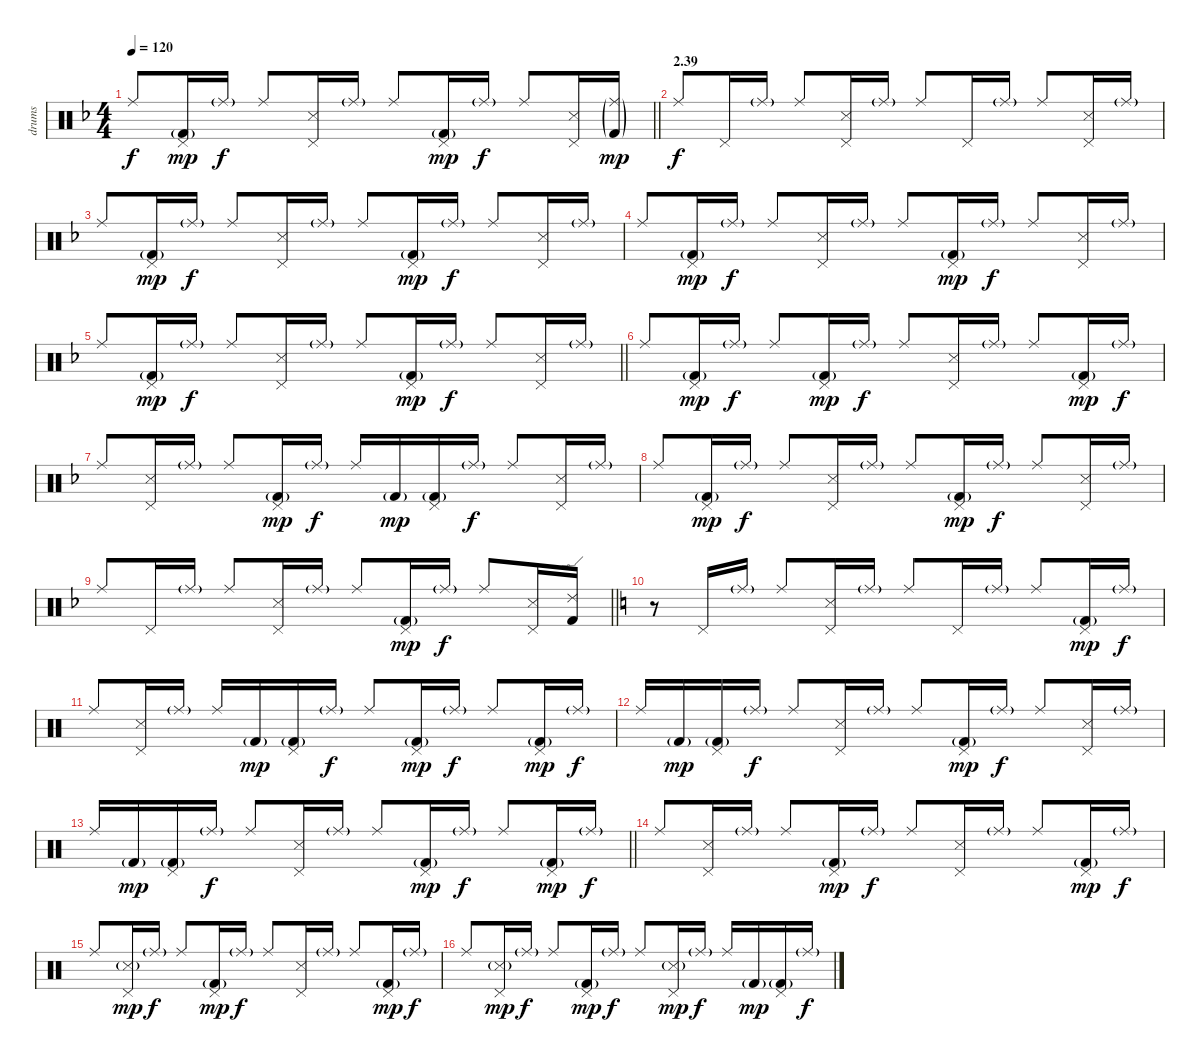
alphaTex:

\track ("drums" "drums") {instrument percussion}
\staff {score}
\articulation defaults
\ts (4 4)
\tempo 120
\clef neutral
\barLineRight lightlight
\ks f "Ride (middle)".8{dy f}
("Pedal Hi-Hat (hit)" "Kick (hit) 2"{g}).16{dy mp} "Ride (middle)"{g}.16{dy f} "Ride (middle)".8 ("Pedal Hi-Hat (hit)" "Snare (side stick) 3").16 "Ride (middle)"{g}.16 "Ride (middle)".8 ("Pedal Hi-Hat (hit)" "Kick (hit) 2"{g}).16{dy mp} "Ride (middle)"{g}.16{dy f} "Ride (middle)".8 ("Pedal Hi-Hat (hit)" "Snare (side stick) 3").16 ("Ride (middle)"{g} "Kick (hit) 2"{g}).16{dy mp} |
\section ("" "2.39")
"Ride (middle)".8{dy f} "Pedal Hi-Hat (hit)".16 "Ride (middle)"{g}.16 "Ride (middle)".8 ("Pedal Hi-Hat (hit)" "Snare (side stick) 3").16 "Ride (middle)"{g}.16 "Ride (middle)".8 "Pedal Hi-Hat (hit)".16 "Ride (middle)"{g}.16 "Ride (middle)".8 ("Pedal Hi-Hat (hit)" "Snare (side stick) 3").16 "Ride (middle)"{g}.16 |
"Ride (middle)".8 ("Pedal Hi-Hat (hit)" "Kick (hit) 2"{g}).16{dy mp} "Ride (middle)"{g}.16{dy f} "Ride (middle)".8 ("Pedal Hi-Hat (hit)" "Snare (side stick) 3").16 "Ride (middle)"{g}.16 "Ride (middle)".8 ("Pedal Hi-Hat (hit)" "Kick (hit) 2"{g}).16{dy mp} "Ride (middle)"{g}.16{dy f} "Ride (middle)".8 ("Pedal Hi-Hat (hit)" "Snare (side stick) 3").16 "Ride (middle)"{g}.16 |
"Ride (middle)".8 ("Pedal Hi-Hat (hit)" "Kick (hit) 2"{g}).16{dy mp} "Ride (middle)"{g}.16{dy f} "Ride (middle)".8 ("Pedal Hi-Hat (hit)" "Snare (side stick) 3").16 "Ride (middle)"{g}.16 "Ride (middle)".8 ("Pedal Hi-Hat (hit)" "Kick (hit) 2"{g}).16{dy mp} "Ride (middle)"{g}.16{dy f} "Ride (middle)".8 ("Pedal Hi-Hat (hit)" "Snare (side stick) 3").16 "Ride (middle)"{g}.16 |
\barLineRight lightlight "Ride (middle)".8
("Pedal Hi-Hat (hit)" "Kick (hit) 2"{g}).16{dy mp} "Ride (middle)"{g}.16{dy f} "Ride (middle)".8 ("Pedal Hi-Hat (hit)" "Snare (side stick) 3").16 "Ride (middle)"{g}.16 "Ride (middle)".8 ("Pedal Hi-Hat (hit)" "Kick (hit) 2"{g}).16{dy mp} "Ride (middle)"{g}.16{dy f} "Ride (middle)".8 ("Pedal Hi-Hat (hit)" "Snare (side stick) 3").16 "Ride (middle)"{g}.16 |
"Ride (middle)".8 ("Pedal Hi-Hat (hit)" "Kick (hit) 2"{g}).16{dy mp} "Ride (middle)"{g}.16{dy f} "Ride (middle)".8 ("Pedal Hi-Hat (hit)" "Kick (hit) 2"{g}).16{dy mp} "Ride (middle)"{g}.16{dy f} "Ride (middle)".8 ("Pedal Hi-Hat (hit)" "Snare (side stick) 3").16 "Ride (middle)"{g}.16 "Ride (middle)".8 ("Pedal Hi-Hat (hit)" "Kick (hit) 2"{g}).16{dy mp} "Ride (middle)"{g}.16{dy f} |
"Ride (middle)".8 ("Pedal Hi-Hat (hit)" "Snare (side stick) 3").16 "Ride (middle)"{g}.16 "Ride (middle)".8 ("Pedal Hi-Hat (hit)" "Kick (hit) 2"{g}).16{dy mp} "Ride (middle)"{g}.16{dy f} "Ride (middle)".16 "Kick (hit) 2"{g}.16{dy mp} ("Pedal Hi-Hat (hit)" "Kick (hit) 2"{g}).16 "Ride (middle)"{g}.16{dy f} "Ride (middle)".8 ("Pedal Hi-Hat (hit)" "Snare (side stick) 3").16 "Ride (middle)"{g}.16 |
"Ride (middle)".8 ("Pedal Hi-Hat (hit)" "Kick (hit) 2"{g}).16{dy mp} "Ride (middle)"{g}.16{dy f} "Ride (middle)".8 ("Pedal Hi-Hat (hit)" "Snare (side stick) 3").16 "Ride (middle)"{g}.16 "Ride (middle)".8 ("Pedal Hi-Hat (hit)" "Kick (hit) 2"{g}).16{dy mp} "Ride (middle)"{g}.16{dy f} "Ride (middle)".8 ("Pedal Hi-Hat (hit)" "Snare (side stick) 3").16 "Ride (middle)"{g}.16 |
\barLineRight lightlight "Ride (middle)".8 "Pedal Hi-Hat (hit)".16 "Ride (middle)"{g}.16 "Ride (middle)".8
("Pedal Hi-Hat (hit)" "Snare (side stick) 3").16 "Ride (middle)"{g}.16 "Ride (middle)".8 ("Pedal Hi-Hat (hit)" "Kick (hit) 2"{g}).16{dy mp} "Ride (middle)"{g}.16{dy f} "Ride (middle)".8 ("Pedal Hi-Hat (hit)" "Snare (side stick) 3").16 ("Ride (edge) 2" "Kick (hit) 2").16 |
\ks c
r.8 "Pedal Hi-Hat (hit)".16 "Ride (middle)"{g}.16 "Ride (middle)".8 ("Pedal Hi-Hat (hit)" "Snare (side stick) 3").16 "Ride (middle)"{g}.16 "Ride (middle)".8 "Pedal Hi-Hat (hit)".16 "Ride (middle)"{g}.16 "Ride (middle)".8 ("Pedal Hi-Hat (hit)" "Kick (hit) 2"{g}).16{dy mp} "Ride (middle)"{g}.16{dy f} |
"Ride (middle)".8 ("Pedal Hi-Hat (hit)" "Snare (side stick) 3").16 "Ride (middle)"{g}.16 "Ride (middle)".16 "Kick (hit) 2"{g}.16{dy mp} ("Pedal Hi-Hat (hit)" "Kick (hit) 2"{g}).16 "Ride (middle)"{g}.16{dy f} "Ride (middle)".8 ("Pedal Hi-Hat (hit)" "Kick (hit) 2"{g}).16{dy mp} "Ride (middle)"{g}.16{dy f} "Ride (middle)".8 ("Pedal Hi-Hat (hit)" "Kick (hit) 2"{g}).16{dy mp} "Ride (middle)"{g}.16{dy f} |
"Ride (middle)".16 "Kick (hit) 2"{g}.16{dy mp} ("Pedal Hi-Hat (hit)" "Kick (hit) 2"{g}).16 "Ride (middle)"{g}.16{dy f} "Ride (middle)".8 ("Pedal Hi-Hat (hit)" "Snare (side stick) 3").16 "Ride (middle)"{g}.16 "Ride (middle)".8 ("Pedal Hi-Hat (hit)" "Kick (hit) 2"{g}).16{dy mp} "Ride (middle)"{g}.16{dy f} "Ride (middle)".8 ("Pedal Hi-Hat (hit)" "Snare (side stick) 3").16 "Ride (middle)"{g}.16 |
\barLineRight lightlight "Ride (middle)".16 "Kick (hit) 2"{g}.16{dy mp}
("Pedal Hi-Hat (hit)" "Kick (hit) 2"{g}).16 "Ride (middle)"{g}.16{dy f} "Ride (middle)".8 ("Pedal Hi-Hat (hit)" "Snare (side stick) 3").16 "Ride (middle)"{g}.16 "Ride (middle)".8 ("Pedal Hi-Hat (hit)" "Kick (hit) 2"{g}).16{dy mp} "Ride (middle)"{g}.16{dy f} "Ride (middle)".8 ("Pedal Hi-Hat (hit)" "Kick (hit) 2"{g}).16{dy mp} "Ride (middle)"{g}.16{dy f} |
"Ride (middle)".8 ("Pedal Hi-Hat (hit)" "Snare (side stick) 3").16 "Ride (middle)"{g}.16 "Ride (middle)".8 ("Pedal Hi-Hat (hit)" "Kick (hit) 2"{g}).16{dy mp} "Ride (middle)"{g}.16{dy f} "Ride (middle)".8 ("Pedal Hi-Hat (hit)" "Snare (side stick) 3").16 "Ride (middle)"{g}.16 "Ride (middle)".8 ("Pedal Hi-Hat (hit)" "Kick (hit) 2"{g}).16{dy mp} "Ride (middle)"{g}.16{dy f} |
"Ride (middle)".8 ("Pedal Hi-Hat (hit)" "Snare (side stick) 3"{g}).16{dy mp} "Ride (middle)"{g}.16{dy f} "Ride (middle)".8 ("Pedal Hi-Hat (hit)" "Kick (hit) 2"{g}).16{dy mp} "Ride (middle)"{g}.16{dy f} "Ride (middle)".8 ("Pedal Hi-Hat (hit)" "Snare (side stick) 3").16 "Ride (middle)"{g}.16 "Ride (middle)".8 ("Pedal Hi-Hat (hit)" "Kick (hit) 2"{g}).16{dy mp} "Ride (middle)"{g}.16{dy f} |
"Ride (middle)".8 ("Pedal Hi-Hat (hit)" "Snare (side stick) 3"{g}).16{dy mp} "Ride (middle)"{g}.16{dy f} "Ride (middle)".8 ("Pedal Hi-Hat (hit)" "Kick (hit) 2"{g}).16{dy mp} "Ride (middle)"{g}.16{dy f} "Ride (middle)".8 ("Pedal Hi-Hat (hit)" "Snare (side stick) 3"{g}).16{dy mp} "Ride (middle)"{g}.16{dy f} "Ride (middle)".16 "Kick (hit) 2"{g}.16{dy mp} ("Pedal Hi-Hat (hit)" "Kick (hit) 2"{g}).16 "Ride (middle)"{g}.16{dy f}
